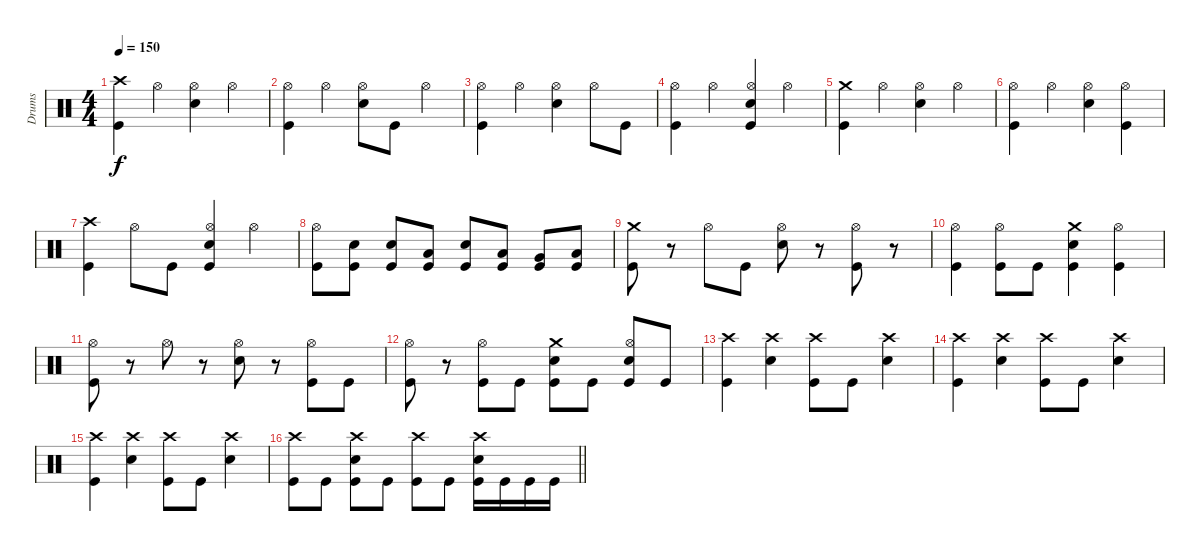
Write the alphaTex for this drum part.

\track ("Drums" "Drums") {instrument percussion}
\staff {score}
\articulation defaults
\ts (4 4)
\tempo 150
\clef neutral
\ks c
("Crash high (hit)" "Kick (hit)").4{dy f} "Hi-Hat (open)".4 ("Hi-Hat (open)" "Snare (hit) 2").4 "Hi-Hat (open)".4 |
("Hi-Hat (open)" "Kick (hit)").4 "Hi-Hat (open)".4 ("Hi-Hat (open)" "Snare (hit) 2").8 "Kick (hit)".8 "Hi-Hat (open)".4 |
("Hi-Hat (open)" "Kick (hit)").4 "Hi-Hat (open)".4 ("Hi-Hat (open)" "Snare (hit) 2").4 "Hi-Hat (open)".8 "Kick (hit)".8 |
("Hi-Hat (open)" "Kick (hit)").4 "Hi-Hat (open)".4 ("Hi-Hat (open)" "Snare (hit) 2" "Kick (hit)").4 "Hi-Hat (open)".4 |
("Crash medium (hit)" "Kick (hit)").4 "Hi-Hat (open)".4 ("Hi-Hat (open)" "Snare (hit) 2").4 "Hi-Hat (open)".4 |
("Hi-Hat (open)" "Kick (hit)").4 "Hi-Hat (open)".4 ("Hi-Hat (open)" "Snare (hit) 2").4 ("Hi-Hat (open)" "Kick (hit)").4 |
("Crash high (hit)" "Kick (hit)").4 "Hi-Hat (open)".8 "Kick (hit)".8 ("Hi-Hat (open)" "Snare (hit) 2" "Kick (hit)").4 "Hi-Hat (open)".4 |
("Hi-Hat (open)" "Kick (hit)").8 ("Snare (hit) 2" "Kick (hit)").8 ("Snare (hit) 2" "Kick (hit)").8 ("Low Tom (hit)" "Kick (hit)").8 ("Snare (hit) 2" "Kick (hit)").8 ("Low Tom (hit)" "Kick (hit)").8 ("Very Low Tom (hit)" "Kick (hit)").8 ("Low Floor Tom (hit)" "Kick (hit)").8 |
("Crash medium (hit)" "Kick (hit)").8 r.8 "Hi-Hat (open)".8 "Kick (hit)".8 ("Hi-Hat (open)" "Snare (hit) 2").8 r.8 ("Hi-Hat (open)" "Kick (hit)").8 r.8 |
("Hi-Hat (open)" "Kick (hit)").4 ("Hi-Hat (open)" "Kick (hit)").8 "Kick (hit)".8 ("Crash medium (hit)" "Snare (hit) 2" "Kick (hit)").4 ("Hi-Hat (open)" "Kick (hit)").4 |
("Hi-Hat (open)" "Kick (hit)").8 r.8 "Hi-Hat (open)".8 r.8 ("Hi-Hat (open)" "Snare (hit) 2").8 r.8 ("Hi-Hat (open)" "Kick (hit)").8 "Kick (hit)".8 |
("Hi-Hat (open)" "Kick (hit)").8 r.8 ("Hi-Hat (open)" "Kick (hit)").8 "Kick (hit)".8 ("Crash medium (hit)" "Snare (hit) 2" "Kick (hit)").8 "Kick (hit)".8 ("Hi-Hat (open)" "Snare (hit) 2" "Kick (hit)").8 "Kick (hit)".8 |
("Crash high (hit)" "Kick (hit)").4 ("Crash high (hit)" "Snare (hit) 2").4 ("Crash high (hit)" "Kick (hit)").8 "Kick (hit)".8 ("Crash high (hit)" "Snare (hit) 2").4 |
("Crash high (hit)" "Kick (hit)").4 ("Crash high (hit)" "Snare (hit) 2").4 ("Crash high (hit)" "Kick (hit)").8 "Kick (hit)".8 ("Crash high (hit)" "Snare (hit) 2").4 |
("Crash high (hit)" "Kick (hit)").4 ("Crash high (hit)" "Snare (hit) 2").4 ("Crash high (hit)" "Kick (hit)").8 "Kick (hit)".8 ("Crash high (hit)" "Snare (hit) 2").4 |
\barLineRight lightlight
("Crash high (hit)" "Kick (hit)").8 "Kick (hit)".8 ("Crash high (hit)" "Snare (hit) 2" "Kick (hit)").8 "Kick (hit)".8 ("Crash high (hit)" "Kick (hit)").8 "Kick (hit)".8 ("Crash high (hit)" "Snare (hit) 2" "Kick (hit)").16 "Kick (hit)".16 "Kick (hit)".16 "Kick (hit)".16
